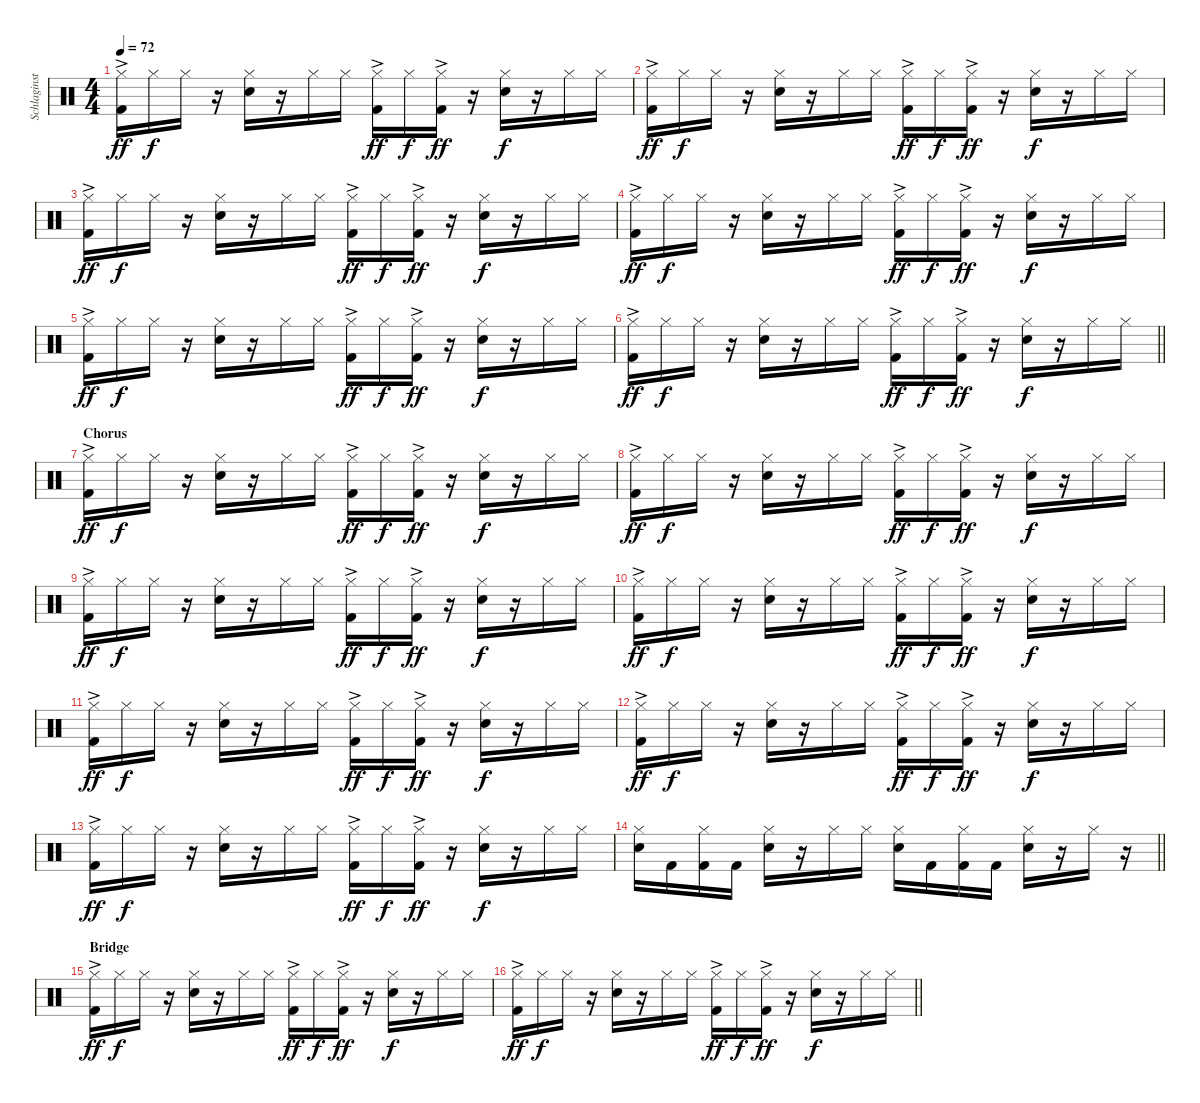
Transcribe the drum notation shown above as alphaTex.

\track ("Schlaginstrumente - Auswahl" "Schlaginst") {instrument percussion}
\staff {score}
\articulation defaults
\ts (4 4)
\tempo 72
\clef neutral
\ks c
("Hi-Hat (closed)" "Kick (hit) 2"{ac}).16{dy ff} "Hi-Hat (closed)".16{dy f} "Hi-Hat (closed)".16 r.16 ("Snare (hit) 2" "Hi-Hat (closed)").16 r.16 "Hi-Hat (closed)".16 "Hi-Hat (closed)".16 ("Hi-Hat (closed)" "Kick (hit) 2"{ac}).16{dy ff} "Hi-Hat (closed)".16{dy f} ("Hi-Hat (closed)" "Kick (hit) 2"{ac}).16{dy ff} r.16 ("Snare (hit) 2" "Hi-Hat (closed)").16{dy f} r.16 "Hi-Hat (closed)".16 "Hi-Hat (closed)".16 |
("Hi-Hat (closed)" "Kick (hit) 2"{ac}).16{dy ff} "Hi-Hat (closed)".16{dy f} "Hi-Hat (closed)".16 r.16 ("Snare (hit) 2" "Hi-Hat (closed)").16 r.16 "Hi-Hat (closed)".16 "Hi-Hat (closed)".16 ("Hi-Hat (closed)" "Kick (hit) 2"{ac}).16{dy ff} "Hi-Hat (closed)".16{dy f} ("Hi-Hat (closed)" "Kick (hit) 2"{ac}).16{dy ff} r.16 ("Snare (hit) 2" "Hi-Hat (closed)").16{dy f} r.16 "Hi-Hat (closed)".16 "Hi-Hat (closed)".16 |
("Hi-Hat (closed)" "Kick (hit) 2"{ac}).16{dy ff} "Hi-Hat (closed)".16{dy f} "Hi-Hat (closed)".16 r.16 ("Snare (hit) 2" "Hi-Hat (closed)").16 r.16 "Hi-Hat (closed)".16 "Hi-Hat (closed)".16 ("Hi-Hat (closed)" "Kick (hit) 2"{ac}).16{dy ff} "Hi-Hat (closed)".16{dy f} ("Hi-Hat (closed)" "Kick (hit) 2"{ac}).16{dy ff} r.16 ("Snare (hit) 2" "Hi-Hat (closed)").16{dy f} r.16 "Hi-Hat (closed)".16 "Hi-Hat (closed)".16 |
("Hi-Hat (closed)" "Kick (hit) 2"{ac}).16{dy ff} "Hi-Hat (closed)".16{dy f} "Hi-Hat (closed)".16 r.16 ("Snare (hit) 2" "Hi-Hat (closed)").16 r.16 "Hi-Hat (closed)".16 "Hi-Hat (closed)".16 ("Hi-Hat (closed)" "Kick (hit) 2"{ac}).16{dy ff} "Hi-Hat (closed)".16{dy f} ("Hi-Hat (closed)" "Kick (hit) 2"{ac}).16{dy ff} r.16 ("Snare (hit) 2" "Hi-Hat (closed)").16{dy f} r.16 "Hi-Hat (closed)".16 "Hi-Hat (closed)".16 |
("Hi-Hat (closed)" "Kick (hit) 2"{ac}).16{dy ff} "Hi-Hat (closed)".16{dy f} "Hi-Hat (closed)".16 r.16 ("Snare (hit) 2" "Hi-Hat (closed)").16 r.16 "Hi-Hat (closed)".16 "Hi-Hat (closed)".16 ("Hi-Hat (closed)" "Kick (hit) 2"{ac}).16{dy ff} "Hi-Hat (closed)".16{dy f} ("Hi-Hat (closed)" "Kick (hit) 2"{ac}).16{dy ff} r.16 ("Snare (hit) 2" "Hi-Hat (closed)").16{dy f} r.16 "Hi-Hat (closed)".16 "Hi-Hat (closed)".16 |
\barLineRight lightlight
("Hi-Hat (closed)" "Kick (hit) 2"{ac}).16{dy ff} "Hi-Hat (closed)".16{dy f} "Hi-Hat (closed)".16 r.16 ("Snare (hit) 2" "Hi-Hat (closed)").16 r.16 "Hi-Hat (closed)".16 "Hi-Hat (closed)".16 ("Hi-Hat (closed)" "Kick (hit) 2"{ac}).16{dy ff} "Hi-Hat (closed)".16{dy f} ("Hi-Hat (closed)" "Kick (hit) 2"{ac}).16{dy ff} r.16 ("Snare (hit) 2" "Hi-Hat (closed)").16{dy f} r.16 "Hi-Hat (closed)".16 "Hi-Hat (closed)".16 |
\section ("" "Chorus")
("Hi-Hat (closed)" "Kick (hit) 2"{ac}).16{dy ff} "Hi-Hat (closed)".16{dy f} "Hi-Hat (closed)".16 r.16 ("Snare (hit) 2" "Hi-Hat (closed)").16 r.16 "Hi-Hat (closed)".16 "Hi-Hat (closed)".16 ("Hi-Hat (closed)" "Kick (hit) 2"{ac}).16{dy ff} "Hi-Hat (closed)".16{dy f} ("Hi-Hat (closed)" "Kick (hit) 2"{ac}).16{dy ff} r.16 ("Snare (hit) 2" "Hi-Hat (closed)").16{dy f} r.16 "Hi-Hat (closed)".16 "Hi-Hat (closed)".16 |
("Hi-Hat (closed)" "Kick (hit) 2"{ac}).16{dy ff} "Hi-Hat (closed)".16{dy f} "Hi-Hat (closed)".16 r.16 ("Snare (hit) 2" "Hi-Hat (closed)").16 r.16 "Hi-Hat (closed)".16 "Hi-Hat (closed)".16 ("Hi-Hat (closed)" "Kick (hit) 2"{ac}).16{dy ff} "Hi-Hat (closed)".16{dy f} ("Hi-Hat (closed)" "Kick (hit) 2"{ac}).16{dy ff} r.16 ("Snare (hit) 2" "Hi-Hat (closed)").16{dy f} r.16 "Hi-Hat (closed)".16 "Hi-Hat (closed)".16 |
("Hi-Hat (closed)" "Kick (hit) 2"{ac}).16{dy ff} "Hi-Hat (closed)".16{dy f} "Hi-Hat (closed)".16 r.16 ("Snare (hit) 2" "Hi-Hat (closed)").16 r.16 "Hi-Hat (closed)".16 "Hi-Hat (closed)".16 ("Hi-Hat (closed)" "Kick (hit) 2"{ac}).16{dy ff} "Hi-Hat (closed)".16{dy f} ("Hi-Hat (closed)" "Kick (hit) 2"{ac}).16{dy ff} r.16 ("Snare (hit) 2" "Hi-Hat (closed)").16{dy f} r.16 "Hi-Hat (closed)".16 "Hi-Hat (closed)".16 |
("Hi-Hat (closed)" "Kick (hit) 2"{ac}).16{dy ff} "Hi-Hat (closed)".16{dy f} "Hi-Hat (closed)".16 r.16 ("Snare (hit) 2" "Hi-Hat (closed)").16 r.16 "Hi-Hat (closed)".16 "Hi-Hat (closed)".16 ("Hi-Hat (closed)" "Kick (hit) 2"{ac}).16{dy ff} "Hi-Hat (closed)".16{dy f} ("Hi-Hat (closed)" "Kick (hit) 2"{ac}).16{dy ff} r.16 ("Snare (hit) 2" "Hi-Hat (closed)").16{dy f} r.16 "Hi-Hat (closed)".16 "Hi-Hat (closed)".16 |
("Hi-Hat (closed)" "Kick (hit) 2"{ac}).16{dy ff} "Hi-Hat (closed)".16{dy f} "Hi-Hat (closed)".16 r.16 ("Snare (hit) 2" "Hi-Hat (closed)").16 r.16 "Hi-Hat (closed)".16 "Hi-Hat (closed)".16 ("Hi-Hat (closed)" "Kick (hit) 2"{ac}).16{dy ff} "Hi-Hat (closed)".16{dy f} ("Hi-Hat (closed)" "Kick (hit) 2"{ac}).16{dy ff} r.16 ("Snare (hit) 2" "Hi-Hat (closed)").16{dy f} r.16 "Hi-Hat (closed)".16 "Hi-Hat (closed)".16 |
("Hi-Hat (closed)" "Kick (hit) 2"{ac}).16{dy ff} "Hi-Hat (closed)".16{dy f} "Hi-Hat (closed)".16 r.16 ("Snare (hit) 2" "Hi-Hat (closed)").16 r.16 "Hi-Hat (closed)".16 "Hi-Hat (closed)".16 ("Hi-Hat (closed)" "Kick (hit) 2"{ac}).16{dy ff} "Hi-Hat (closed)".16{dy f} ("Hi-Hat (closed)" "Kick (hit) 2"{ac}).16{dy ff} r.16 ("Snare (hit) 2" "Hi-Hat (closed)").16{dy f} r.16 "Hi-Hat (closed)".16 "Hi-Hat (closed)".16 |
("Hi-Hat (closed)" "Kick (hit) 2"{ac}).16{dy ff} "Hi-Hat (closed)".16{dy f} "Hi-Hat (closed)".16 r.16 ("Snare (hit) 2" "Hi-Hat (closed)").16 r.16 "Hi-Hat (closed)".16 "Hi-Hat (closed)".16 ("Hi-Hat (closed)" "Kick (hit) 2"{ac}).16{dy ff} "Hi-Hat (closed)".16{dy f} ("Hi-Hat (closed)" "Kick (hit) 2"{ac}).16{dy ff} r.16 ("Snare (hit) 2" "Hi-Hat (closed)").16{dy f} r.16 "Hi-Hat (closed)".16 "Hi-Hat (closed)".16 |
\barLineRight lightlight
("Hi-Hat (closed)" "Snare (hit) 2").16 "Kick (hit) 2".16 ("Hi-Hat (closed)" "Kick (hit) 2").16 "Kick (hit) 2".16 ("Hi-Hat (closed)" "Snare (hit) 2").16 r.16 "Hi-Hat (closed)".16 "Hi-Hat (closed)".16 ("Hi-Hat (closed)" "Snare (hit) 2").16 "Kick (hit) 2".16 ("Hi-Hat (closed)" "Kick (hit) 2").16 "Kick (hit) 2".16 ("Hi-Hat (closed)" "Snare (hit) 2").16 r.16 "Hi-Hat (closed)".16 r.16 |
\section ("" "Bridge")
("Hi-Hat (closed)" "Kick (hit) 2"{ac}).16{dy ff} "Hi-Hat (closed)".16{dy f} "Hi-Hat (closed)".16 r.16 ("Snare (hit) 2" "Hi-Hat (closed)").16 r.16 "Hi-Hat (closed)".16 "Hi-Hat (closed)".16 ("Hi-Hat (closed)" "Kick (hit) 2"{ac}).16{dy ff} "Hi-Hat (closed)".16{dy f} ("Hi-Hat (closed)" "Kick (hit) 2"{ac}).16{dy ff} r.16 ("Snare (hit) 2" "Hi-Hat (closed)").16{dy f} r.16 "Hi-Hat (closed)".16 "Hi-Hat (closed)".16 |
\barLineRight lightlight
("Hi-Hat (closed)" "Kick (hit) 2"{ac}).16{dy ff} "Hi-Hat (closed)".16{dy f} "Hi-Hat (closed)".16 r.16 ("Snare (hit) 2" "Hi-Hat (closed)").16 r.16 "Hi-Hat (closed)".16 "Hi-Hat (closed)".16 ("Hi-Hat (closed)" "Kick (hit) 2"{ac}).16{dy ff} "Hi-Hat (closed)".16{dy f} ("Hi-Hat (closed)" "Kick (hit) 2"{ac}).16{dy ff} r.16 ("Snare (hit) 2" "Hi-Hat (closed)").16{dy f} r.16 "Hi-Hat (closed)".16 "Hi-Hat (closed)".16
